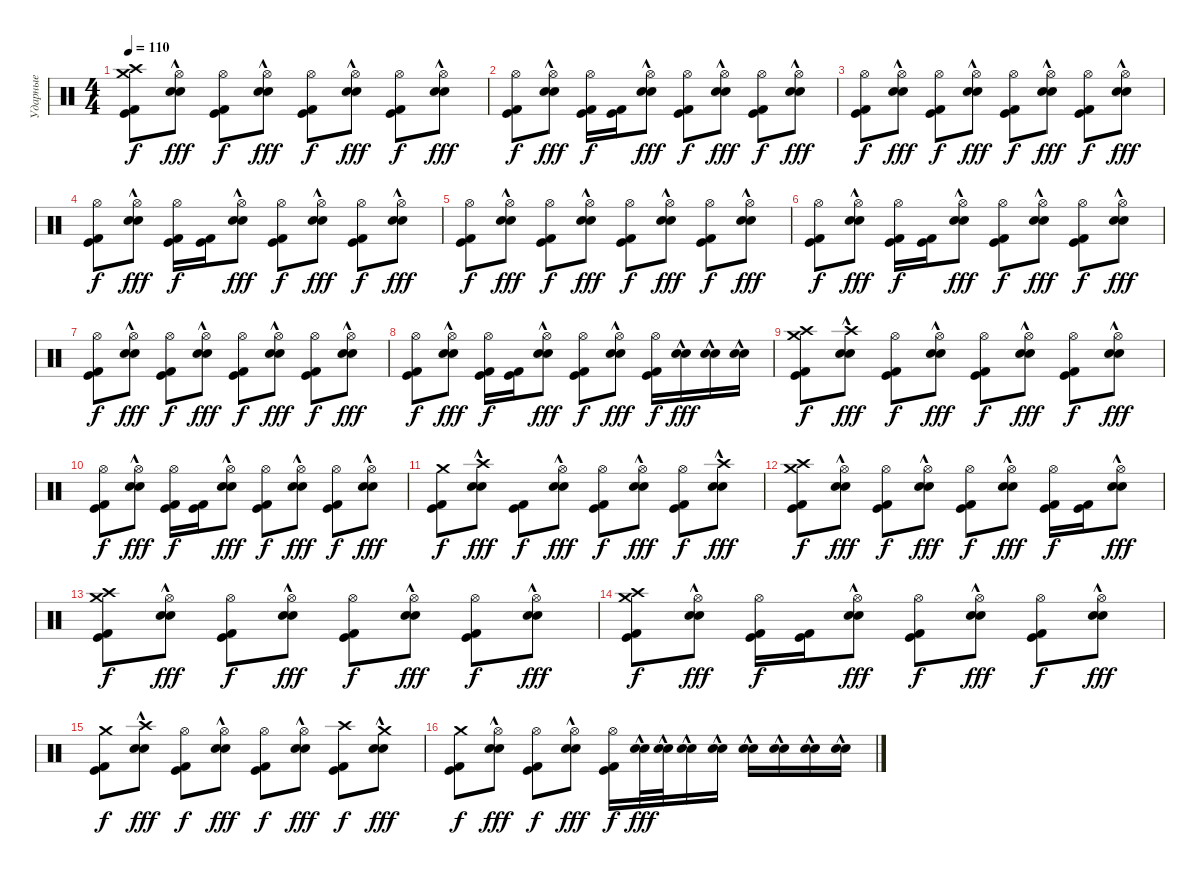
\track ("Ударные" "Ударные") {instrument percussion}
\staff {score}
\articulation defaults
\ts (4 4)
\tempo 110
\clef neutral
\ks c
("Crash high (hit)" "Kick (hit)" "Kick (hit) 2" "Crash medium (hit)").8{dy f} ("Hi-Hat (open)" "Snare (hit) 2"{hac} "Electric Snare (hit)"{hac}).8{dy fff} ("Hi-Hat (open)" "Kick (hit)" "Kick (hit) 2").8{dy f} ("Hi-Hat (open)" "Snare (hit) 2"{hac} "Electric Snare (hit)"{hac}).8{dy fff} ("Hi-Hat (open)" "Kick (hit)" "Kick (hit) 2").8{dy f} ("Hi-Hat (open)" "Snare (hit) 2"{hac} "Electric Snare (hit)"{hac}).8{dy fff} ("Hi-Hat (open)" "Kick (hit)" "Kick (hit) 2").8{dy f} ("Hi-Hat (open)" "Snare (hit) 2"{hac} "Electric Snare (hit)"{hac}).8{dy fff} |
("Hi-Hat (open)" "Kick (hit)" "Kick (hit) 2").8{dy f} ("Hi-Hat (open)" "Snare (hit) 2"{hac} "Electric Snare (hit)"{hac}).8{dy fff} ("Hi-Hat (open)" "Kick (hit)" "Kick (hit) 2").16{dy f} ("Kick (hit)" "Kick (hit) 2").16 ("Hi-Hat (open)" "Snare (hit) 2"{hac} "Electric Snare (hit)"{hac}).8{dy fff} ("Hi-Hat (open)" "Kick (hit)" "Kick (hit) 2").8{dy f} ("Hi-Hat (open)" "Snare (hit) 2"{hac} "Electric Snare (hit)"{hac}).8{dy fff} ("Hi-Hat (open)" "Kick (hit)" "Kick (hit) 2").8{dy f} ("Hi-Hat (open)" "Snare (hit) 2"{hac} "Electric Snare (hit)"{hac}).8{dy fff} |
("Hi-Hat (open)" "Kick (hit)" "Kick (hit) 2").8{dy f} ("Hi-Hat (open)" "Snare (hit) 2"{hac} "Electric Snare (hit)"{hac}).8{dy fff} ("Hi-Hat (open)" "Kick (hit)" "Kick (hit) 2").8{dy f} ("Hi-Hat (open)" "Snare (hit) 2"{hac} "Electric Snare (hit)"{hac}).8{dy fff} ("Hi-Hat (open)" "Kick (hit)" "Kick (hit) 2").8{dy f} ("Hi-Hat (open)" "Snare (hit) 2"{hac} "Electric Snare (hit)"{hac}).8{dy fff} ("Hi-Hat (open)" "Kick (hit)" "Kick (hit) 2").8{dy f} ("Hi-Hat (open)" "Snare (hit) 2"{hac} "Electric Snare (hit)"{hac}).8{dy fff} |
("Hi-Hat (open)" "Kick (hit)" "Kick (hit) 2").8{dy f} ("Hi-Hat (open)" "Snare (hit) 2"{hac} "Electric Snare (hit)"{hac}).8{dy fff} ("Hi-Hat (open)" "Kick (hit)" "Kick (hit) 2").16{dy f} ("Kick (hit)" "Kick (hit) 2").16 ("Hi-Hat (open)" "Snare (hit) 2"{hac} "Electric Snare (hit)"{hac}).8{dy fff} ("Hi-Hat (open)" "Kick (hit)" "Kick (hit) 2").8{dy f} ("Hi-Hat (open)" "Snare (hit) 2"{hac} "Electric Snare (hit)"{hac}).8{dy fff} ("Hi-Hat (open)" "Kick (hit)" "Kick (hit) 2").8{dy f} ("Hi-Hat (open)" "Snare (hit) 2"{hac} "Electric Snare (hit)"{hac}).8{dy fff} |
("Hi-Hat (open)" "Kick (hit)" "Kick (hit) 2").8{dy f} ("Hi-Hat (open)" "Snare (hit) 2"{hac} "Electric Snare (hit)"{hac}).8{dy fff} ("Hi-Hat (open)" "Kick (hit)" "Kick (hit) 2").8{dy f} ("Hi-Hat (open)" "Snare (hit) 2"{hac} "Electric Snare (hit)"{hac}).8{dy fff} ("Hi-Hat (open)" "Kick (hit)" "Kick (hit) 2").8{dy f} ("Hi-Hat (open)" "Snare (hit) 2"{hac} "Electric Snare (hit)"{hac}).8{dy fff} ("Hi-Hat (open)" "Kick (hit)" "Kick (hit) 2").8{dy f} ("Hi-Hat (open)" "Snare (hit) 2"{hac} "Electric Snare (hit)"{hac}).8{dy fff} |
("Hi-Hat (open)" "Kick (hit)" "Kick (hit) 2").8{dy f} ("Hi-Hat (open)" "Snare (hit) 2"{hac} "Electric Snare (hit)"{hac}).8{dy fff} ("Hi-Hat (open)" "Kick (hit)" "Kick (hit) 2").16{dy f} ("Kick (hit)" "Kick (hit) 2").16 ("Hi-Hat (open)" "Snare (hit) 2"{hac} "Electric Snare (hit)"{hac}).8{dy fff} ("Hi-Hat (open)" "Kick (hit)" "Kick (hit) 2").8{dy f} ("Hi-Hat (open)" "Snare (hit) 2"{hac} "Electric Snare (hit)"{hac}).8{dy fff} ("Hi-Hat (open)" "Kick (hit)" "Kick (hit) 2").8{dy f} ("Hi-Hat (open)" "Snare (hit) 2"{hac} "Electric Snare (hit)"{hac}).8{dy fff} |
("Hi-Hat (open)" "Kick (hit)" "Kick (hit) 2").8{dy f} ("Hi-Hat (open)" "Snare (hit) 2"{hac} "Electric Snare (hit)"{hac}).8{dy fff} ("Hi-Hat (open)" "Kick (hit)" "Kick (hit) 2").8{dy f} ("Hi-Hat (open)" "Snare (hit) 2"{hac} "Electric Snare (hit)"{hac}).8{dy fff} ("Hi-Hat (open)" "Kick (hit)" "Kick (hit) 2").8{dy f} ("Hi-Hat (open)" "Snare (hit) 2"{hac} "Electric Snare (hit)"{hac}).8{dy fff} ("Hi-Hat (open)" "Kick (hit)" "Kick (hit) 2").8{dy f} ("Hi-Hat (open)" "Snare (hit) 2"{hac} "Electric Snare (hit)"{hac}).8{dy fff} |
("Hi-Hat (open)" "Kick (hit)" "Kick (hit) 2").8{dy f} ("Hi-Hat (open)" "Snare (hit) 2"{hac} "Electric Snare (hit)"{hac}).8{dy fff} ("Hi-Hat (open)" "Kick (hit)" "Kick (hit) 2").16{dy f} ("Kick (hit)" "Kick (hit) 2").16 ("Hi-Hat (open)" "Snare (hit) 2"{hac} "Electric Snare (hit)"{hac}).8{dy fff} ("Hi-Hat (open)" "Kick (hit)" "Kick (hit) 2").8{dy f} ("Hi-Hat (open)" "Snare (hit) 2"{hac} "Electric Snare (hit)"{hac}).8{dy fff} ("Hi-Hat (open)" "Kick (hit)" "Kick (hit) 2").16{dy f} ("Snare (hit) 2"{hac} "Electric Snare (hit)"{hac}).16{dy fff} ("Snare (hit) 2"{hac} "Electric Snare (hit)"{hac}).16 ("Snare (hit) 2"{hac} "Electric Snare (hit)"{hac}).16 |
("Crash high (hit)" "Kick (hit)" "Kick (hit) 2" "Crash medium (hit)").8{dy f} ("Crash high (hit)" "Snare (hit) 2"{hac} "Electric Snare (hit)"{hac}).8{dy fff} ("Hi-Hat (open)" "Kick (hit)" "Kick (hit) 2").8{dy f} ("Hi-Hat (open)" "Snare (hit) 2"{hac} "Electric Snare (hit)"{hac}).8{dy fff} ("Hi-Hat (open)" "Kick (hit)" "Kick (hit) 2").8{dy f} ("Hi-Hat (open)" "Snare (hit) 2"{hac} "Electric Snare (hit)"{hac}).8{dy fff} ("Hi-Hat (open)" "Kick (hit)" "Kick (hit) 2").8{dy f} ("Hi-Hat (open)" "Snare (hit) 2"{hac} "Electric Snare (hit)"{hac}).8{dy fff} |
("Hi-Hat (open)" "Kick (hit)" "Kick (hit) 2").8{dy f} ("Hi-Hat (open)" "Snare (hit) 2"{hac} "Electric Snare (hit)"{hac}).8{dy fff} ("Hi-Hat (open)" "Kick (hit)" "Kick (hit) 2").16{dy f} ("Kick (hit)" "Kick (hit) 2").16 ("Hi-Hat (open)" "Snare (hit) 2"{hac} "Electric Snare (hit)"{hac}).8{dy fff} ("Hi-Hat (open)" "Kick (hit)" "Kick (hit) 2").8{dy f} ("Hi-Hat (open)" "Snare (hit) 2"{hac} "Electric Snare (hit)"{hac}).8{dy fff} ("Hi-Hat (open)" "Kick (hit)" "Kick (hit) 2").8{dy f} ("Hi-Hat (open)" "Snare (hit) 2"{hac} "Electric Snare (hit)"{hac}).8{dy fff} |
("Crash medium (hit)" "Kick (hit)" "Kick (hit) 2").8{dy f} ("Crash high (hit)" "Snare (hit) 2"{hac} "Electric Snare (hit)"{hac}).8{dy fff} ("Kick (hit)" "Kick (hit) 2").8{dy f} ("Hi-Hat (open)" "Snare (hit) 2"{hac} "Electric Snare (hit)"{hac}).8{dy fff} ("Hi-Hat (open)" "Kick (hit)" "Kick (hit) 2").8{dy f} ("Hi-Hat (open)" "Snare (hit) 2"{hac} "Electric Snare (hit)"{hac}).8{dy fff} ("Hi-Hat (open)" "Kick (hit)" "Kick (hit) 2").8{dy f} ("Crash high (hit)" "Snare (hit) 2"{hac} "Electric Snare (hit)"{hac}).8{dy fff} |
("Crash high (hit)" "Kick (hit)" "Kick (hit) 2" "Crash medium (hit)").8{dy f} ("Hi-Hat (open)" "Snare (hit) 2"{hac} "Electric Snare (hit)"{hac}).8{dy fff} ("Hi-Hat (open)" "Kick (hit)" "Kick (hit) 2").8{dy f} ("Hi-Hat (open)" "Snare (hit) 2"{hac} "Electric Snare (hit)"{hac}).8{dy fff} ("Hi-Hat (open)" "Kick (hit)" "Kick (hit) 2").8{dy f} ("Hi-Hat (open)" "Snare (hit) 2"{hac} "Electric Snare (hit)"{hac}).8{dy fff} ("Hi-Hat (open)" "Kick (hit)" "Kick (hit) 2").16{dy f} ("Kick (hit)" "Kick (hit) 2").16 ("Hi-Hat (open)" "Snare (hit) 2"{hac} "Electric Snare (hit)"{hac}).8{dy fff} |
("Crash high (hit)" "Kick (hit)" "Kick (hit) 2" "Crash medium (hit)").8{dy f} ("Hi-Hat (open)" "Snare (hit) 2"{hac} "Electric Snare (hit)"{hac}).8{dy fff} ("Hi-Hat (open)" "Kick (hit)" "Kick (hit) 2").8{dy f} ("Hi-Hat (open)" "Snare (hit) 2"{hac} "Electric Snare (hit)"{hac}).8{dy fff} ("Hi-Hat (open)" "Kick (hit)" "Kick (hit) 2").8{dy f} ("Hi-Hat (open)" "Snare (hit) 2"{hac} "Electric Snare (hit)"{hac}).8{dy fff} ("Hi-Hat (open)" "Kick (hit)" "Kick (hit) 2").8{dy f} ("Hi-Hat (open)" "Snare (hit) 2"{hac} "Electric Snare (hit)"{hac}).8{dy fff} |
("Crash high (hit)" "Kick (hit)" "Kick (hit) 2" "Crash medium (hit)").8{dy f} ("Hi-Hat (open)" "Snare (hit) 2"{hac} "Electric Snare (hit)"{hac}).8{dy fff} ("Hi-Hat (open)" "Kick (hit)" "Kick (hit) 2").16{dy f} ("Kick (hit)" "Kick (hit) 2").16 ("Hi-Hat (open)" "Snare (hit) 2"{hac} "Electric Snare (hit)"{hac}).8{dy fff} ("Hi-Hat (open)" "Kick (hit)" "Kick (hit) 2").8{dy f} ("Hi-Hat (open)" "Snare (hit) 2"{hac} "Electric Snare (hit)"{hac}).8{dy fff} ("Hi-Hat (open)" "Kick (hit)" "Kick (hit) 2").8{dy f} ("Hi-Hat (open)" "Snare (hit) 2"{hac} "Electric Snare (hit)"{hac}).8{dy fff} |
("Crash medium (hit)" "Kick (hit)" "Kick (hit) 2").8{dy f} ("Crash high (hit)" "Snare (hit) 2"{hac} "Electric Snare (hit)"{hac}).8{dy fff} ("Hi-Hat (open)" "Kick (hit)" "Kick (hit) 2").8{dy f} ("Hi-Hat (open)" "Snare (hit) 2"{hac} "Electric Snare (hit)"{hac}).8{dy fff} ("Hi-Hat (open)" "Kick (hit)" "Kick (hit) 2").8{dy f} ("Hi-Hat (open)" "Snare (hit) 2"{hac} "Electric Snare (hit)"{hac}).8{dy fff} ("Crash high (hit)" "Kick (hit)" "Kick (hit) 2").8{dy f} ("Crash medium (hit)" "Snare (hit) 2"{hac} "Electric Snare (hit)"{hac}).8{dy fff} |
("Crash medium (hit)" "Kick (hit)" "Kick (hit) 2").8{dy f} ("Hi-Hat (open)" "Snare (hit) 2"{hac} "Electric Snare (hit)"{hac}).8{dy fff} ("Hi-Hat (open)" "Kick (hit)" "Kick (hit) 2").8{dy f} ("Hi-Hat (open)" "Snare (hit) 2"{hac} "Electric Snare (hit)"{hac}).8{dy fff} ("Hi-Hat (open)" "Kick (hit)" "Kick (hit) 2").16{dy f} ("Snare (hit) 2"{hac} "Electric Snare (hit)"{hac}).32{dy fff} ("Snare (hit) 2"{hac} "Electric Snare (hit)"{hac}).32 ("Snare (hit) 2"{hac} "Electric Snare (hit)"{hac}).16 ("Snare (hit) 2"{hac} "Electric Snare (hit)"{hac}).16 ("Snare (hit) 2"{hac} "Electric Snare (hit)"{hac}).16 ("Snare (hit) 2"{hac} "Electric Snare (hit)"{hac}).16 ("Snare (hit) 2"{hac} "Electric Snare (hit)"{hac}).16 ("Snare (hit) 2"{hac} "Electric Snare (hit)"{hac}).16
